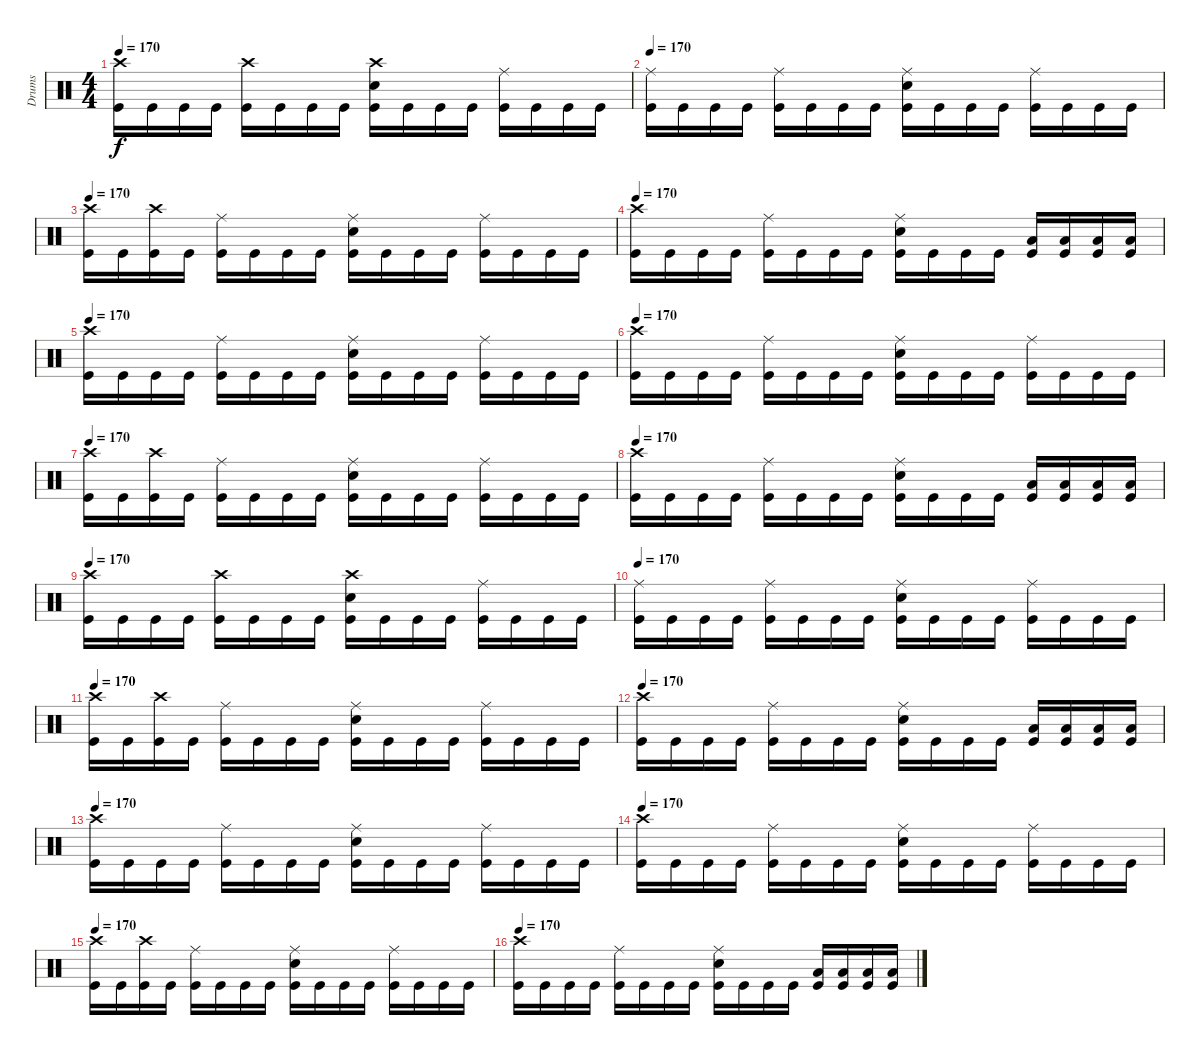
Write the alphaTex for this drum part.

\track ("Drums" "Drums") {instrument percussion}
\staff {score}
\articulation defaults
\ts (4 4)
\tempo 170
\clef neutral
\ks c
("Crash high (hit)" "Kick (hit)").16{dy f} "Kick (hit)".16 "Kick (hit)".16 "Kick (hit)".16 ("Crash high (hit)" "Kick (hit)").16 "Kick (hit)".16 "Kick (hit)".16 "Kick (hit)".16 ("Crash high (hit)" "Electric Snare (hit)" "Kick (hit)").16 "Kick (hit)".16 "Kick (hit)".16 "Kick (hit)".16 ("Ride (middle)" "Kick (hit)").16 "Kick (hit)".16 "Kick (hit)".16 "Kick (hit)".16 |
\tempo 170
("Ride (middle)" "Kick (hit)").16 "Kick (hit)".16 "Kick (hit)".16 "Kick (hit)".16 ("Ride (middle)" "Kick (hit)").16 "Kick (hit)".16 "Kick (hit)".16 "Kick (hit)".16 ("Ride (middle)" "Electric Snare (hit)" "Kick (hit)").16 "Kick (hit)".16 "Kick (hit)".16 "Kick (hit)".16 ("Ride (middle)" "Kick (hit)").16 "Kick (hit)".16 "Kick (hit)".16 "Kick (hit)".16 |
\tempo 170
("Crash high (hit)" "Kick (hit)").16 "Kick (hit)".16 ("Crash high (hit)" "Kick (hit)").16 "Kick (hit)".16 ("Ride (middle)" "Kick (hit)").16 "Kick (hit)".16 "Kick (hit)".16 "Kick (hit)".16 ("Ride (middle)" "Electric Snare (hit)" "Kick (hit)").16 "Kick (hit)".16 "Kick (hit)".16 "Kick (hit)".16 ("Ride (middle)" "Kick (hit)").16 "Kick (hit)".16 "Kick (hit)".16 "Kick (hit)".16 |
\tempo 170
("Crash high (hit)" "Kick (hit)").16 "Kick (hit)".16 "Kick (hit)".16 "Kick (hit)".16 ("Ride (middle)" "Kick (hit)").16 "Kick (hit)".16 "Kick (hit)".16 "Kick (hit)".16 ("Ride (middle)" "Electric Snare (hit)" "Kick (hit)").16 "Kick (hit)".16 "Kick (hit)".16 "Kick (hit)".16 ("Low Tom (hit)" "Kick (hit)").16 ("Low Tom (hit)" "Kick (hit)").16 ("Low Tom (hit)" "Kick (hit)").16 ("Low Tom (hit)" "Kick (hit)").16 |
\tempo 170
("Crash high (hit)" "Kick (hit)").16 "Kick (hit)".16 "Kick (hit)".16 "Kick (hit)".16 ("Ride (middle)" "Kick (hit)").16 "Kick (hit)".16 "Kick (hit)".16 "Kick (hit)".16 ("Ride (middle)" "Electric Snare (hit)" "Kick (hit)").16 "Kick (hit)".16 "Kick (hit)".16 "Kick (hit)".16 ("Ride (middle)" "Kick (hit)").16 "Kick (hit)".16 "Kick (hit)".16 "Kick (hit)".16 |
\tempo 170
("Crash high (hit)" "Kick (hit)").16 "Kick (hit)".16 "Kick (hit)".16 "Kick (hit)".16 ("Ride (middle)" "Kick (hit)").16 "Kick (hit)".16 "Kick (hit)".16 "Kick (hit)".16 ("Ride (middle)" "Electric Snare (hit)" "Kick (hit)").16 "Kick (hit)".16 "Kick (hit)".16 "Kick (hit)".16 ("Ride (middle)" "Kick (hit)").16 "Kick (hit)".16 "Kick (hit)".16 "Kick (hit)".16 |
\tempo 170
("Crash high (hit)" "Kick (hit)").16 "Kick (hit)".16 ("Crash high (hit)" "Kick (hit)").16 "Kick (hit)".16 ("Ride (middle)" "Kick (hit)").16 "Kick (hit)".16 "Kick (hit)".16 "Kick (hit)".16 ("Ride (middle)" "Electric Snare (hit)" "Kick (hit)").16 "Kick (hit)".16 "Kick (hit)".16 "Kick (hit)".16 ("Ride (middle)" "Kick (hit)").16 "Kick (hit)".16 "Kick (hit)".16 "Kick (hit)".16 |
\tempo 170
("Crash high (hit)" "Kick (hit)").16 "Kick (hit)".16 "Kick (hit)".16 "Kick (hit)".16 ("Ride (middle)" "Kick (hit)").16 "Kick (hit)".16 "Kick (hit)".16 "Kick (hit)".16 ("Ride (middle)" "Electric Snare (hit)" "Kick (hit)").16 "Kick (hit)".16 "Kick (hit)".16 "Kick (hit)".16 ("Low Tom (hit)" "Kick (hit)").16 ("Low Tom (hit)" "Kick (hit)").16 ("Low Tom (hit)" "Kick (hit)").16 ("Low Tom (hit)" "Kick (hit)").16 |
\tempo 170
("Crash high (hit)" "Kick (hit)").16 "Kick (hit)".16 "Kick (hit)".16 "Kick (hit)".16 ("Crash high (hit)" "Kick (hit)").16 "Kick (hit)".16 "Kick (hit)".16 "Kick (hit)".16 ("Crash high (hit)" "Electric Snare (hit)" "Kick (hit)").16 "Kick (hit)".16 "Kick (hit)".16 "Kick (hit)".16 ("Ride (middle)" "Kick (hit)").16 "Kick (hit)".16 "Kick (hit)".16 "Kick (hit)".16 |
\tempo 170
("Ride (middle)" "Kick (hit)").16 "Kick (hit)".16 "Kick (hit)".16 "Kick (hit)".16 ("Ride (middle)" "Kick (hit)").16 "Kick (hit)".16 "Kick (hit)".16 "Kick (hit)".16 ("Ride (middle)" "Electric Snare (hit)" "Kick (hit)").16 "Kick (hit)".16 "Kick (hit)".16 "Kick (hit)".16 ("Ride (middle)" "Kick (hit)").16 "Kick (hit)".16 "Kick (hit)".16 "Kick (hit)".16 |
\tempo 170
("Crash high (hit)" "Kick (hit)").16 "Kick (hit)".16 ("Crash high (hit)" "Kick (hit)").16 "Kick (hit)".16 ("Ride (middle)" "Kick (hit)").16 "Kick (hit)".16 "Kick (hit)".16 "Kick (hit)".16 ("Ride (middle)" "Electric Snare (hit)" "Kick (hit)").16 "Kick (hit)".16 "Kick (hit)".16 "Kick (hit)".16 ("Ride (middle)" "Kick (hit)").16 "Kick (hit)".16 "Kick (hit)".16 "Kick (hit)".16 |
\tempo 170
("Crash high (hit)" "Kick (hit)").16 "Kick (hit)".16 "Kick (hit)".16 "Kick (hit)".16 ("Ride (middle)" "Kick (hit)").16 "Kick (hit)".16 "Kick (hit)".16 "Kick (hit)".16 ("Ride (middle)" "Electric Snare (hit)" "Kick (hit)").16 "Kick (hit)".16 "Kick (hit)".16 "Kick (hit)".16 ("Low Tom (hit)" "Kick (hit)").16 ("Low Tom (hit)" "Kick (hit)").16 ("Low Tom (hit)" "Kick (hit)").16 ("Low Tom (hit)" "Kick (hit)").16 |
\tempo 170
("Crash high (hit)" "Kick (hit)").16 "Kick (hit)".16 "Kick (hit)".16 "Kick (hit)".16 ("Ride (middle)" "Kick (hit)").16 "Kick (hit)".16 "Kick (hit)".16 "Kick (hit)".16 ("Ride (middle)" "Electric Snare (hit)" "Kick (hit)").16 "Kick (hit)".16 "Kick (hit)".16 "Kick (hit)".16 ("Ride (middle)" "Kick (hit)").16 "Kick (hit)".16 "Kick (hit)".16 "Kick (hit)".16 |
\tempo 170
("Crash high (hit)" "Kick (hit)").16 "Kick (hit)".16 "Kick (hit)".16 "Kick (hit)".16 ("Ride (middle)" "Kick (hit)").16 "Kick (hit)".16 "Kick (hit)".16 "Kick (hit)".16 ("Ride (middle)" "Electric Snare (hit)" "Kick (hit)").16 "Kick (hit)".16 "Kick (hit)".16 "Kick (hit)".16 ("Ride (middle)" "Kick (hit)").16 "Kick (hit)".16 "Kick (hit)".16 "Kick (hit)".16 |
\tempo 170
("Crash high (hit)" "Kick (hit)").16 "Kick (hit)".16 ("Crash high (hit)" "Kick (hit)").16 "Kick (hit)".16 ("Ride (middle)" "Kick (hit)").16 "Kick (hit)".16 "Kick (hit)".16 "Kick (hit)".16 ("Ride (middle)" "Electric Snare (hit)" "Kick (hit)").16 "Kick (hit)".16 "Kick (hit)".16 "Kick (hit)".16 ("Ride (middle)" "Kick (hit)").16 "Kick (hit)".16 "Kick (hit)".16 "Kick (hit)".16 |
\tempo 170
("Crash high (hit)" "Kick (hit)").16 "Kick (hit)".16 "Kick (hit)".16 "Kick (hit)".16 ("Ride (middle)" "Kick (hit)").16 "Kick (hit)".16 "Kick (hit)".16 "Kick (hit)".16 ("Ride (middle)" "Electric Snare (hit)" "Kick (hit)").16 "Kick (hit)".16 "Kick (hit)".16 "Kick (hit)".16 ("Low Tom (hit)" "Kick (hit)").16 ("Low Tom (hit)" "Kick (hit)").16 ("Low Tom (hit)" "Kick (hit)").16 ("Low Tom (hit)" "Kick (hit)").16
